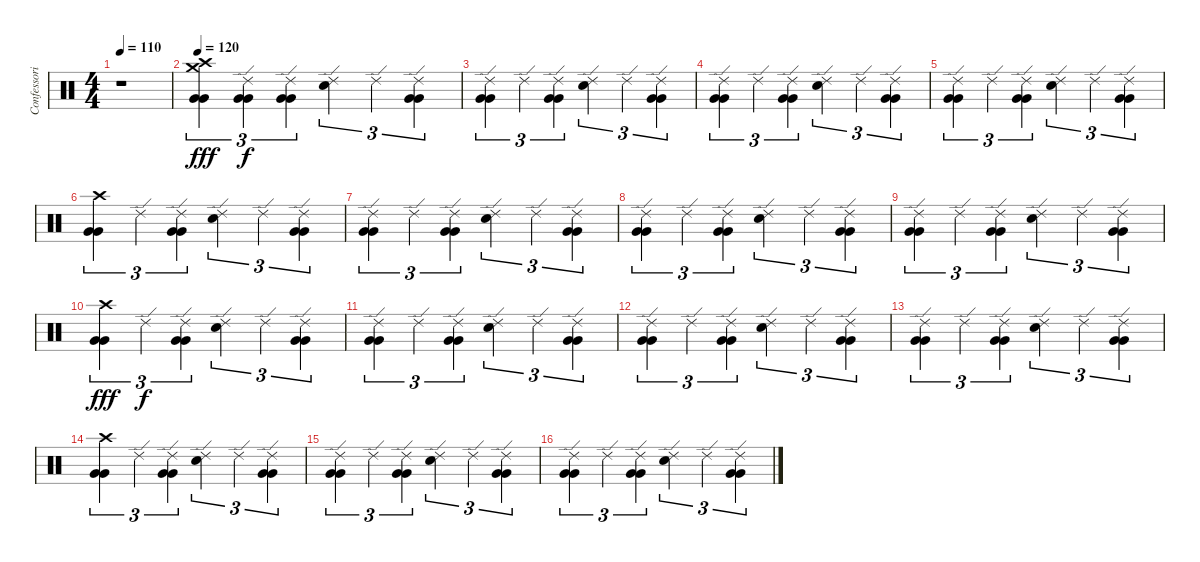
\track ("Confessori" "Confessori") {instrument percussion}
\staff {score}
\articulation defaults
\ts (4 4)
\tempo 110
\clef neutral
\ks c
r.1{dy pp} |
\tempo 120
("Crash high (hit)" "Crash medium (hit)" "Very Low Tom (hit)" "Very Low Tom (hit)").4{tu (3 2) dy fff} ("Ride (edge) 2" "Very Low Tom (hit)" "Very Low Tom (hit)").4{tu (3 2) dy f} ("Ride (edge) 2" "Very Low Tom (hit)" "Very Low Tom (hit)").4{tu (3 2)} ("Ride (edge) 2" "Electric Snare (hit)").4{tu (3 2)} "Ride (edge) 2".4{tu (3 2)} ("Ride (edge) 2" "Very Low Tom (hit)" "Very Low Tom (hit)").4{tu (3 2)} |
("Ride (edge) 2" "Very Low Tom (hit)" "Very Low Tom (hit)").4{tu (3 2)} "Ride (edge) 2".4{tu (3 2)} ("Ride (edge) 2" "Very Low Tom (hit)" "Very Low Tom (hit)").4{tu (3 2)} ("Ride (edge) 2" "Electric Snare (hit)").4{tu (3 2)} "Ride (edge) 2".4{tu (3 2)} ("Ride (edge) 2" "Very Low Tom (hit)" "Very Low Tom (hit)").4{tu (3 2)} |
("Ride (edge) 2" "Very Low Tom (hit)" "Very Low Tom (hit)").4{tu (3 2)} "Ride (edge) 2".4{tu (3 2)} ("Ride (edge) 2" "Very Low Tom (hit)" "Very Low Tom (hit)").4{tu (3 2)} ("Ride (edge) 2" "Electric Snare (hit)").4{tu (3 2)} "Ride (edge) 2".4{tu (3 2)} ("Ride (edge) 2" "Very Low Tom (hit)" "Very Low Tom (hit)").4{tu (3 2)} |
("Ride (edge) 2" "Very Low Tom (hit)" "Very Low Tom (hit)").4{tu (3 2)} "Ride (edge) 2".4{tu (3 2)} ("Ride (edge) 2" "Very Low Tom (hit)" "Very Low Tom (hit)").4{tu (3 2)} ("Ride (edge) 2" "Electric Snare (hit)").4{tu (3 2)} "Ride (edge) 2".4{tu (3 2)} ("Ride (edge) 2" "Very Low Tom (hit)" "Very Low Tom (hit)").4{tu (3 2)} |
("Crash high (hit)" "Very Low Tom (hit)" "Very Low Tom (hit)").4{tu (3 2)} "Ride (edge) 2".4{tu (3 2)} ("Ride (edge) 2" "Very Low Tom (hit)" "Very Low Tom (hit)").4{tu (3 2)} ("Ride (edge) 2" "Electric Snare (hit)").4{tu (3 2)} "Ride (edge) 2".4{tu (3 2)} ("Ride (edge) 2" "Very Low Tom (hit)" "Very Low Tom (hit)").4{tu (3 2)} |
("Ride (edge) 2" "Very Low Tom (hit)" "Very Low Tom (hit)").4{tu (3 2)} "Ride (edge) 2".4{tu (3 2)} ("Ride (edge) 2" "Very Low Tom (hit)" "Very Low Tom (hit)").4{tu (3 2)} ("Ride (edge) 2" "Electric Snare (hit)").4{tu (3 2)} "Ride (edge) 2".4{tu (3 2)} ("Ride (edge) 2" "Very Low Tom (hit)" "Very Low Tom (hit)").4{tu (3 2)} |
("Ride (edge) 2" "Very Low Tom (hit)" "Very Low Tom (hit)").4{tu (3 2)} "Ride (edge) 2".4{tu (3 2)} ("Ride (edge) 2" "Very Low Tom (hit)" "Very Low Tom (hit)").4{tu (3 2)} ("Ride (edge) 2" "Electric Snare (hit)").4{tu (3 2)} "Ride (edge) 2".4{tu (3 2)} ("Ride (edge) 2" "Very Low Tom (hit)" "Very Low Tom (hit)").4{tu (3 2)} |
("Ride (edge) 2" "Very Low Tom (hit)" "Very Low Tom (hit)").4{tu (3 2)} "Ride (edge) 2".4{tu (3 2)} ("Ride (edge) 2" "Very Low Tom (hit)" "Very Low Tom (hit)").4{tu (3 2)} ("Ride (edge) 2" "Electric Snare (hit)").4{tu (3 2)} "Ride (edge) 2".4{tu (3 2)} ("Ride (edge) 2" "Very Low Tom (hit)" "Very Low Tom (hit)").4{tu (3 2)} |
("Crash high (hit)" "Very Low Tom (hit)" "Very Low Tom (hit)").4{tu (3 2) dy fff} "Ride (edge) 2".4{tu (3 2) dy f} ("Ride (edge) 2" "Very Low Tom (hit)" "Very Low Tom (hit)").4{tu (3 2)} ("Ride (edge) 2" "Electric Snare (hit)").4{tu (3 2)} "Ride (edge) 2".4{tu (3 2)} ("Ride (edge) 2" "Very Low Tom (hit)" "Very Low Tom (hit)").4{tu (3 2)} |
("Ride (edge) 2" "Very Low Tom (hit)" "Very Low Tom (hit)").4{tu (3 2)} "Ride (edge) 2".4{tu (3 2)} ("Ride (edge) 2" "Very Low Tom (hit)" "Very Low Tom (hit)").4{tu (3 2)} ("Ride (edge) 2" "Electric Snare (hit)").4{tu (3 2)} "Ride (edge) 2".4{tu (3 2)} ("Ride (edge) 2" "Very Low Tom (hit)" "Very Low Tom (hit)").4{tu (3 2)} |
("Ride (edge) 2" "Very Low Tom (hit)" "Very Low Tom (hit)").4{tu (3 2)} "Ride (edge) 2".4{tu (3 2)} ("Ride (edge) 2" "Very Low Tom (hit)" "Very Low Tom (hit)").4{tu (3 2)} ("Ride (edge) 2" "Electric Snare (hit)").4{tu (3 2)} "Ride (edge) 2".4{tu (3 2)} ("Ride (edge) 2" "Very Low Tom (hit)" "Very Low Tom (hit)").4{tu (3 2)} |
("Ride (edge) 2" "Very Low Tom (hit)" "Very Low Tom (hit)").4{tu (3 2)} "Ride (edge) 2".4{tu (3 2)} ("Ride (edge) 2" "Very Low Tom (hit)" "Very Low Tom (hit)").4{tu (3 2)} ("Ride (edge) 2" "Electric Snare (hit)").4{tu (3 2)} "Ride (edge) 2".4{tu (3 2)} ("Ride (edge) 2" "Very Low Tom (hit)" "Very Low Tom (hit)").4{tu (3 2)} |
("Crash high (hit)" "Very Low Tom (hit)" "Very Low Tom (hit)").4{tu (3 2)} "Ride (edge) 2".4{tu (3 2)} ("Ride (edge) 2" "Very Low Tom (hit)" "Very Low Tom (hit)").4{tu (3 2)} ("Ride (edge) 2" "Electric Snare (hit)").4{tu (3 2)} "Ride (edge) 2".4{tu (3 2)} ("Ride (edge) 2" "Very Low Tom (hit)" "Very Low Tom (hit)").4{tu (3 2)} |
("Ride (edge) 2" "Very Low Tom (hit)" "Very Low Tom (hit)").4{tu (3 2)} "Ride (edge) 2".4{tu (3 2)} ("Ride (edge) 2" "Very Low Tom (hit)" "Very Low Tom (hit)").4{tu (3 2)} ("Ride (edge) 2" "Electric Snare (hit)").4{tu (3 2)} "Ride (edge) 2".4{tu (3 2)} ("Ride (edge) 2" "Very Low Tom (hit)" "Very Low Tom (hit)").4{tu (3 2)} |
("Ride (edge) 2" "Very Low Tom (hit)" "Very Low Tom (hit)").4{tu (3 2)} "Ride (edge) 2".4{tu (3 2)} ("Ride (edge) 2" "Very Low Tom (hit)" "Very Low Tom (hit)").4{tu (3 2)} ("Ride (edge) 2" "Electric Snare (hit)").4{tu (3 2)} "Ride (edge) 2".4{tu (3 2)} ("Ride (edge) 2" "Very Low Tom (hit)" "Very Low Tom (hit)").4{tu (3 2)}
